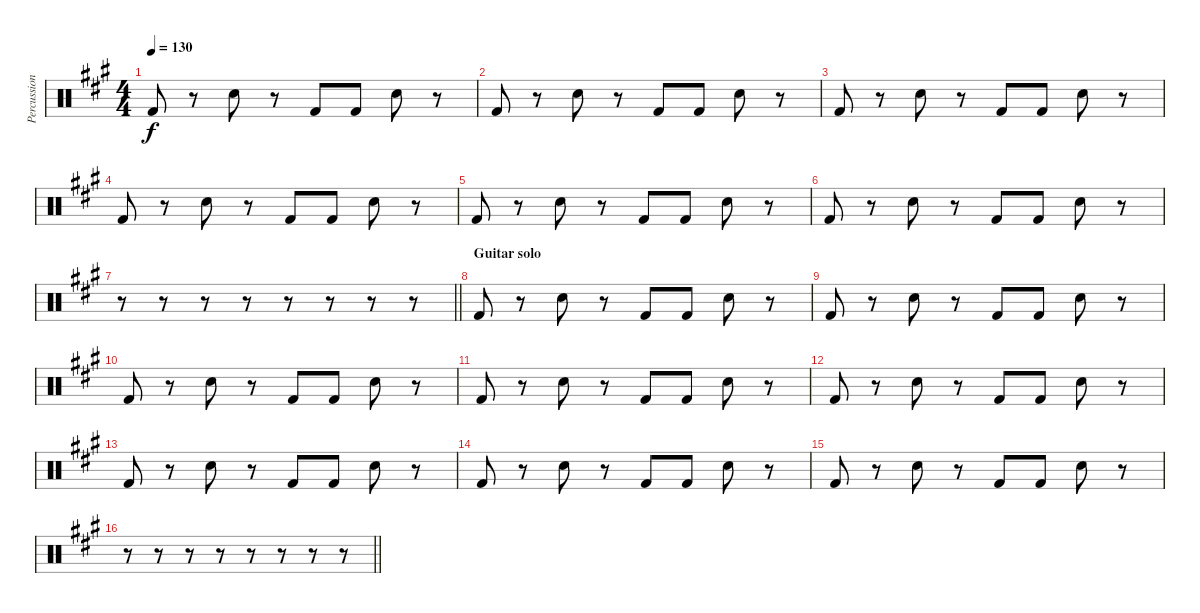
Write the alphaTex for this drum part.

\track ("Percussion" "Percussion") {instrument percussion}
\staff {score}
\articulation defaults
\ts (4 4)
\tempo 130
\clef neutral
\ks a "Kick (hit) 2".8{dy f}
r.8 "Snare (hit) 2".8 r.8 "Kick (hit) 2".8 "Kick (hit) 2".8 "Snare (hit) 2".8 r.8 |
"Kick (hit) 2".8 r.8 "Snare (hit) 2".8 r.8 "Kick (hit) 2".8 "Kick (hit) 2".8 "Snare (hit) 2".8 r.8 |
"Kick (hit) 2".8 r.8 "Snare (hit) 2".8 r.8 "Kick (hit) 2".8 "Kick (hit) 2".8 "Snare (hit) 2".8 r.8 |
"Kick (hit) 2".8 r.8 "Snare (hit) 2".8 r.8 "Kick (hit) 2".8 "Kick (hit) 2".8 "Snare (hit) 2".8 r.8 |
"Kick (hit) 2".8 r.8 "Snare (hit) 2".8 r.8 "Kick (hit) 2".8 "Kick (hit) 2".8 "Snare (hit) 2".8 r.8 |
"Kick (hit) 2".8 r.8 "Snare (hit) 2".8 r.8 "Kick (hit) 2".8 "Kick (hit) 2".8 "Snare (hit) 2".8 r.8 |
\barLineRight lightlight
r.8 r.8 r.8 r.8 r.8 r.8 r.8 r.8 |
\section ("" "Guitar solo")
"Kick (hit) 2".8 r.8 "Snare (hit) 2".8 r.8 "Kick (hit) 2".8 "Kick (hit) 2".8 "Snare (hit) 2".8 r.8 |
"Kick (hit) 2".8 r.8 "Snare (hit) 2".8 r.8 "Kick (hit) 2".8 "Kick (hit) 2".8 "Snare (hit) 2".8 r.8 |
"Kick (hit) 2".8 r.8 "Snare (hit) 2".8 r.8 "Kick (hit) 2".8 "Kick (hit) 2".8 "Snare (hit) 2".8 r.8 |
"Kick (hit) 2".8 r.8 "Snare (hit) 2".8 r.8 "Kick (hit) 2".8 "Kick (hit) 2".8 "Snare (hit) 2".8 r.8 |
"Kick (hit) 2".8 r.8 "Snare (hit) 2".8 r.8 "Kick (hit) 2".8 "Kick (hit) 2".8 "Snare (hit) 2".8 r.8 |
"Kick (hit) 2".8 r.8 "Snare (hit) 2".8 r.8 "Kick (hit) 2".8 "Kick (hit) 2".8 "Snare (hit) 2".8 r.8 |
"Kick (hit) 2".8 r.8 "Snare (hit) 2".8 r.8 "Kick (hit) 2".8 "Kick (hit) 2".8 "Snare (hit) 2".8 r.8 |
"Kick (hit) 2".8 r.8 "Snare (hit) 2".8 r.8 "Kick (hit) 2".8 "Kick (hit) 2".8 "Snare (hit) 2".8 r.8 |
\barLineRight lightlight
r.8 r.8 r.8 r.8 r.8 r.8 r.8 r.8
